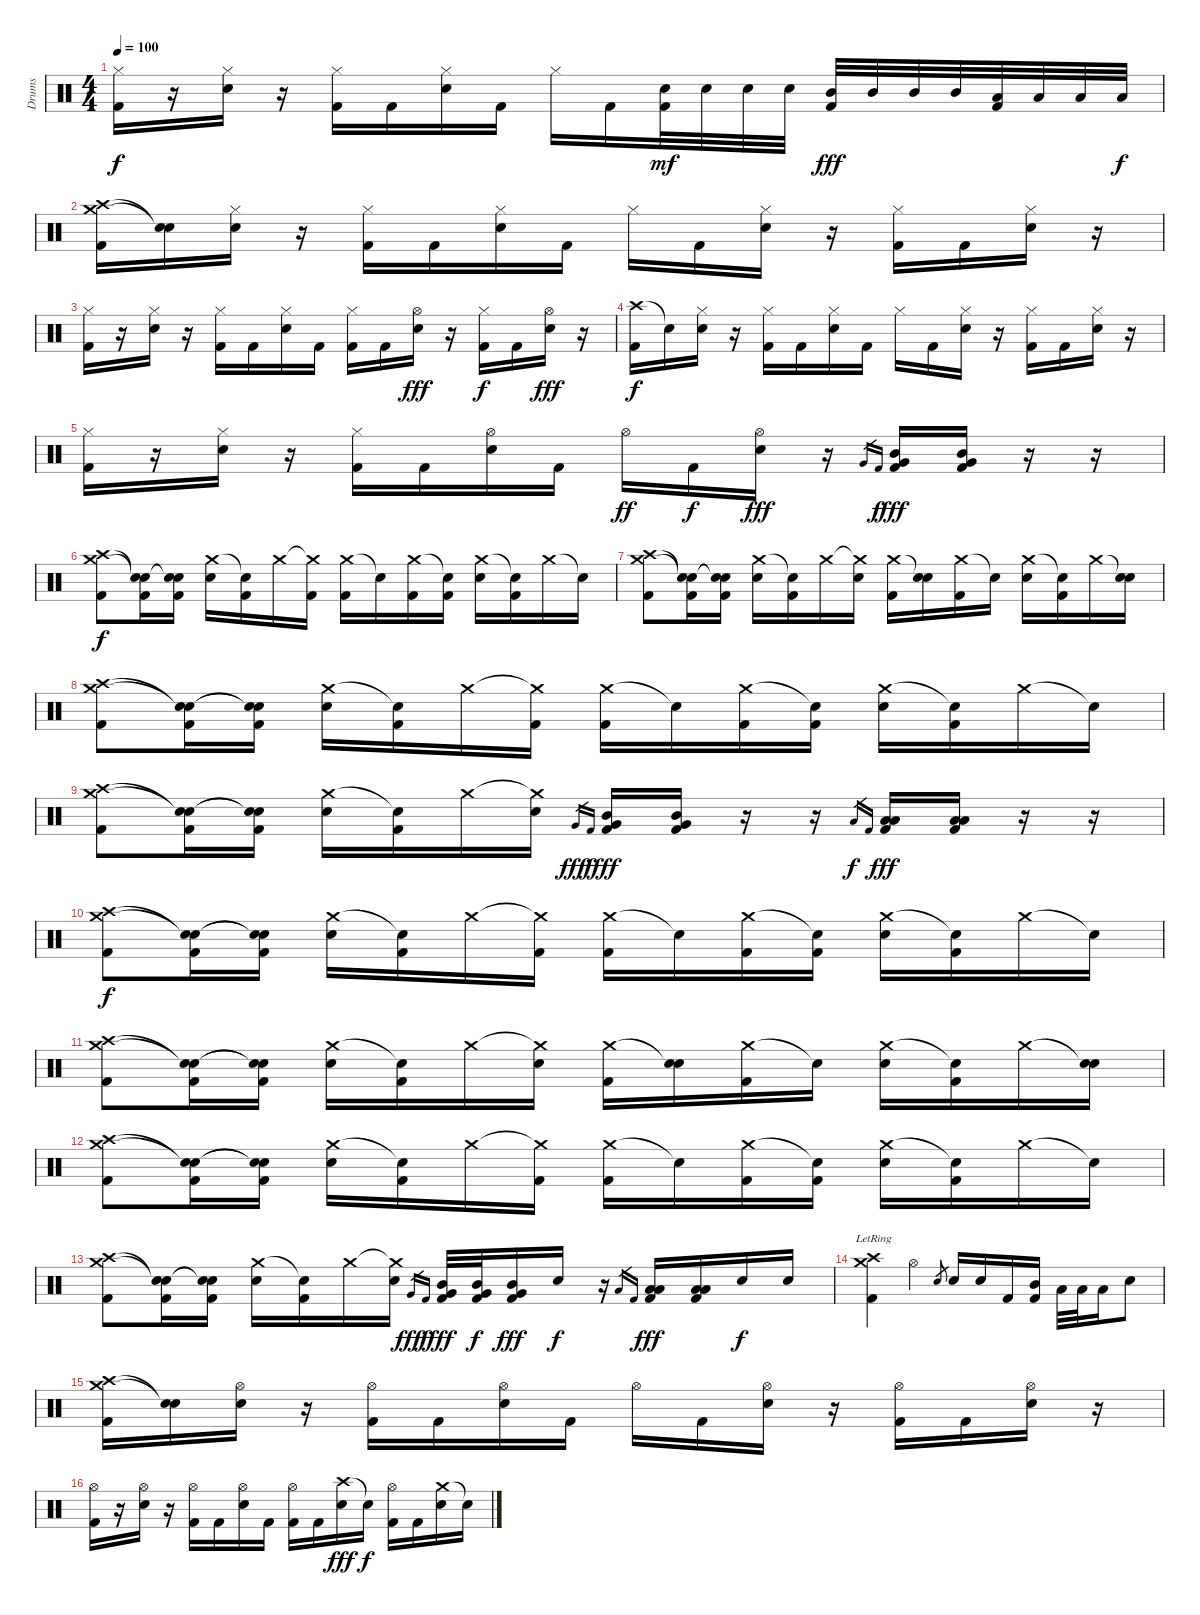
\track ("Drums" "Drums") {instrument percussion}
\staff {score}
\articulation defaults
\ts (4 4)
\tempo 100
\clef neutral
\ks c
("Hi-Hat (closed)" "Kick (hit) 2").16{dy f} r.16 ("Hi-Hat (closed)" "Electric Snare (hit)").16 r.16 ("Hi-Hat (closed)" "Kick (hit) 2").16 "Kick (hit) 2".16 ("Hi-Hat (closed)" "Electric Snare (hit)").16 "Kick (hit) 2".16 "Hi-Hat (closed)".16 "Kick (hit) 2".16 ("Kick (hit) 2" "Electric Snare (hit)").32{dy mf} "Electric Snare (hit)".32 "Electric Snare (hit)".32 "Electric Snare (hit)".32 ("Mid Tom (hit)" "Kick (hit) 2").32{dy fff} "Mid Tom (hit)".32 "Mid Tom (hit)".32 "Mid Tom (hit)".32 ("Low Tom (hit)" "Kick (hit) 2").32 "Low Tom (hit)".32 "Low Tom (hit)".32 "Low Tom (hit)".32{dy f} |
("Crash high (hit)" "Crash medium (hit)" "Kick (hit) 2").16 ("Snare (hit)"{t} "Snare (hit)"{t}).16 ("Hi-Hat (closed)" "Electric Snare (hit)").16 r.16 ("Hi-Hat (closed)" "Kick (hit) 2").16 "Kick (hit) 2".16 ("Hi-Hat (closed)" "Electric Snare (hit)").16 "Kick (hit) 2".16 "Hi-Hat (closed)".16 "Kick (hit) 2".16 ("Hi-Hat (closed)" "Electric Snare (hit)").16 r.16 ("Hi-Hat (closed)" "Kick (hit) 2").16 "Kick (hit) 2".16 ("Hi-Hat (closed)" "Electric Snare (hit)").16 r.16 |
("Hi-Hat (closed)" "Kick (hit) 2").16 r.16 ("Hi-Hat (closed)" "Electric Snare (hit)").16 r.16 ("Hi-Hat (closed)" "Kick (hit) 2").16 "Kick (hit) 2".16 ("Hi-Hat (closed)" "Electric Snare (hit)").16 "Kick (hit) 2".16 ("Hi-Hat (closed)" "Kick (hit) 2").16 "Kick (hit) 2".16 ("Hi-Hat (open)" "Electric Snare (hit)").16{dy fff} r.16 ("Hi-Hat (closed)" "Kick (hit) 2").16{dy f} "Kick (hit) 2".16 ("Hi-Hat (open)" "Electric Snare (hit)").16{dy fff} r.16 |
("Crash high (hit)" "Kick (hit) 2").16{dy f} "Snare (hit)"{t}.16 ("Hi-Hat (closed)" "Electric Snare (hit)").16 r.16 ("Hi-Hat (closed)" "Kick (hit) 2").16 "Kick (hit) 2".16 ("Hi-Hat (closed)" "Electric Snare (hit)").16 "Kick (hit) 2".16 "Hi-Hat (closed)".16 "Kick (hit) 2".16 ("Hi-Hat (closed)" "Electric Snare (hit)").16 r.16 ("Hi-Hat (closed)" "Kick (hit) 2").16 "Kick (hit) 2".16 ("Hi-Hat (closed)" "Electric Snare (hit)").16 r.16 |
("Hi-Hat (closed)" "Kick (hit) 2").16 r.16 ("Hi-Hat (closed)" "Electric Snare (hit)").16 r.16 ("Hi-Hat (closed)" "Kick (hit) 2").16 "Kick (hit) 2".16 ("Hi-Hat (open)" "Electric Snare (hit)").16 "Kick (hit) 2".16 "Hi-Hat (open)".16{dy ff} "Kick (hit) 2".16{dy f} ("Hi-Hat (open)" "Electric Snare (hit)").16{dy fff} r.16 "Very Low Tom (hit)".16{gr} "Kick (hit) 2".16{gr dy f} ("Mid Tom (hit)" "Very Low Tom (hit)" "Kick (hit) 2").16{dy fff} ("Mid Tom (hit)" "Very Low Tom (hit)" "Kick (hit) 2").16 r.16 r.16 |
("Crash high (hit)" "Crash medium (hit)" "Kick (hit) 2").8{dy f} ("Snare (hit)"{t} "Snare (hit)"{t} "Kick (hit) 2").16 ("Snare (hit)"{t} "Snare (hit)"{t} "Kick (hit) 2").16 ("Crash medium (hit)" "Electric Snare (hit)").16 ("Snare (hit)"{t} "Kick (hit) 2").16 "Crash medium (hit)".16 ("Crash medium (hit)"{t} "Kick (hit) 2").16 ("Crash medium (hit)" "Kick (hit) 2").16 "Snare (hit)"{t}.16 ("Crash medium (hit)" "Kick (hit) 2").16 ("Snare (hit)"{t} "Kick (hit) 2").16 ("Crash medium (hit)" "Electric Snare (hit)").16 ("Snare (hit)"{t} "Kick (hit) 2").16 "Crash medium (hit)".16 "Snare (hit)"{t}.16 |
("Crash high (hit)" "Crash medium (hit)" "Kick (hit) 2").8 ("Snare (hit)"{t} "Snare (hit)"{t} "Kick (hit) 2").16 ("Snare (hit)"{t} "Snare (hit)"{t} "Kick (hit) 2").16 ("Crash medium (hit)" "Electric Snare (hit)").16 ("Snare (hit)"{t} "Kick (hit) 2").16 "Crash medium (hit)".16 ("Crash medium (hit)"{t} "Electric Snare (hit)").16 ("Crash medium (hit)" "Kick (hit) 2").16 ("Snare (hit)"{t} "Electric Snare (hit)").16 ("Crash medium (hit)" "Kick (hit) 2").16 "Snare (hit)"{t}.16 ("Crash medium (hit)" "Electric Snare (hit)").16 ("Snare (hit)"{t} "Kick (hit) 2").16 "Crash medium (hit)".16 ("Snare (hit)"{t} "Electric Snare (hit)").16 |
("Crash high (hit)" "Crash medium (hit)" "Kick (hit) 2").8 ("Snare (hit)"{t} "Snare (hit)"{t} "Kick (hit) 2").16 ("Snare (hit)"{t} "Snare (hit)"{t} "Kick (hit) 2").16 ("Crash medium (hit)" "Electric Snare (hit)").16 ("Snare (hit)"{t} "Kick (hit) 2").16 "Crash medium (hit)".16 ("Crash medium (hit)"{t} "Kick (hit) 2").16 ("Crash medium (hit)" "Kick (hit) 2").16 "Snare (hit)"{t}.16 ("Crash medium (hit)" "Kick (hit) 2").16 ("Snare (hit)"{t} "Kick (hit) 2").16 ("Crash medium (hit)" "Electric Snare (hit)").16 ("Snare (hit)"{t} "Kick (hit) 2").16 "Crash medium (hit)".16 "Snare (hit)"{t}.16 |
("Crash high (hit)" "Crash medium (hit)" "Kick (hit) 2").8 ("Snare (hit)"{t} "Snare (hit)"{t} "Kick (hit) 2").16 ("Snare (hit)"{t} "Snare (hit)"{t} "Kick (hit) 2").16 ("Crash medium (hit)" "Electric Snare (hit)").16 ("Snare (hit)"{t} "Kick (hit) 2").16 "Crash medium (hit)".16 ("Crash medium (hit)"{t} "Electric Snare (hit)").16 "Very Low Tom (hit)".16{gr dy fff} "Kick (hit) 2".16{gr dy f} ("Mid Tom (hit)" "Very Low Tom (hit)" "Kick (hit) 2").16{dy fff} ("Mid Tom (hit)" "Very Low Tom (hit)" "Kick (hit) 2").16 r.16 r.16 "Low Floor Tom (hit)".16{gr dy f} "Kick (hit) 2".16{gr} ("Low Tom (hit)" "Low Floor Tom (hit)" "Kick (hit) 2").16{dy fff} ("Low Tom (hit)" "Low Floor Tom (hit)" "Kick (hit) 2").16 r.16 r.16 |
("Crash high (hit)" "Crash medium (hit)" "Kick (hit) 2").8{dy f} ("Snare (hit)"{t} "Snare (hit)"{t} "Kick (hit) 2").16 ("Snare (hit)"{t} "Snare (hit)"{t} "Kick (hit) 2").16 ("Crash medium (hit)" "Electric Snare (hit)").16 ("Snare (hit)"{t} "Kick (hit) 2").16 "Crash medium (hit)".16 ("Crash medium (hit)"{t} "Kick (hit) 2").16 ("Crash medium (hit)" "Kick (hit) 2").16 "Snare (hit)"{t}.16 ("Crash medium (hit)" "Kick (hit) 2").16 ("Snare (hit)"{t} "Kick (hit) 2").16 ("Crash medium (hit)" "Electric Snare (hit)").16 ("Snare (hit)"{t} "Kick (hit) 2").16 "Crash medium (hit)".16 "Snare (hit)"{t}.16 |
("Crash high (hit)" "Crash medium (hit)" "Kick (hit) 2").8 ("Snare (hit)"{t} "Snare (hit)"{t} "Kick (hit) 2").16 ("Snare (hit)"{t} "Snare (hit)"{t} "Kick (hit) 2").16 ("Crash medium (hit)" "Electric Snare (hit)").16 ("Snare (hit)"{t} "Kick (hit) 2").16 "Crash medium (hit)".16 ("Crash medium (hit)"{t} "Electric Snare (hit)").16 ("Crash medium (hit)" "Kick (hit) 2").16 ("Snare (hit)"{t} "Electric Snare (hit)").16 ("Crash medium (hit)" "Kick (hit) 2").16 "Snare (hit)"{t}.16 ("Crash medium (hit)" "Electric Snare (hit)").16 ("Snare (hit)"{t} "Kick (hit) 2").16 "Crash medium (hit)".16 ("Snare (hit)"{t} "Electric Snare (hit)").16 |
("Crash high (hit)" "Crash medium (hit)" "Kick (hit) 2").8 ("Snare (hit)"{t} "Snare (hit)"{t} "Kick (hit) 2").16 ("Snare (hit)"{t} "Snare (hit)"{t} "Kick (hit) 2").16 ("Crash medium (hit)" "Electric Snare (hit)").16 ("Snare (hit)"{t} "Kick (hit) 2").16 "Crash medium (hit)".16 ("Crash medium (hit)"{t} "Kick (hit) 2").16 ("Crash medium (hit)" "Kick (hit) 2").16 "Snare (hit)"{t}.16 ("Crash medium (hit)" "Kick (hit) 2").16 ("Snare (hit)"{t} "Kick (hit) 2").16 ("Crash medium (hit)" "Electric Snare (hit)").16 ("Snare (hit)"{t} "Kick (hit) 2").16 "Crash medium (hit)".16 "Snare (hit)"{t}.16 |
("Crash high (hit)" "Crash medium (hit)" "Kick (hit) 2").8 ("Snare (hit)"{t} "Snare (hit)"{t} "Kick (hit) 2").16 ("Snare (hit)"{t} "Snare (hit)"{t} "Kick (hit) 2").16 ("Crash medium (hit)" "Electric Snare (hit)").16 ("Snare (hit)"{t} "Kick (hit) 2").16 "Crash medium (hit)".16 ("Crash medium (hit)"{t} "Electric Snare (hit)").16 "Very Low Tom (hit)".16{gr dy fff} "Kick (hit) 2".16{gr dy f} ("Mid Tom (hit)" "Very Low Tom (hit)" "Kick (hit) 2").32{dy fff} ("Mid Tom (hit)" "Very Low Tom (hit)" "Kick (hit) 2").32{dy f} ("Mid Tom (hit)" "Very Low Tom (hit)" "Kick (hit) 2").16{dy fff} "Electric Snare (hit)".16{dy f} r.16 "Low Floor Tom (hit)".16{gr} "Kick (hit) 2".16{gr} ("Low Tom (hit)" "Low Floor Tom (hit)" "Kick (hit) 2").16{dy fff} ("Low Tom (hit)" "Low Floor Tom (hit)" "Kick (hit) 2").16 "Electric Snare (hit)".16{dy f} "Electric Snare (hit)".16 |
("Crash high (hit)" "Crash medium (hit)"{lr} "Kick (hit) 2").4 "Hi-Hat (open)".4 "Electric Snare (hit)".8{gr} "Electric Snare (hit)".16 "Electric Snare (hit)".16 "Kick (hit) 2".16 ("Mid Tom (hit)" "Kick (hit) 2").16 "Low Tom (hit)".32 "Low Tom (hit)".32 "Low Tom (hit)".16 "Electric Snare (hit)".8 |
("Crash high (hit)" "Crash medium (hit)" "Kick (hit) 2").16 ("Snare (hit)"{t} "Snare (hit)"{t}).16 ("Hi-Hat (open)" "Electric Snare (hit)").16 r.16 ("Hi-Hat (open)" "Kick (hit) 2").16 "Kick (hit) 2".16 ("Hi-Hat (open)" "Electric Snare (hit)").16 "Kick (hit) 2".16 "Hi-Hat (open)".16 "Kick (hit) 2".16 ("Hi-Hat (open)" "Electric Snare (hit)").16 r.16 ("Hi-Hat (open)" "Kick (hit) 2").16 "Kick (hit) 2".16 ("Hi-Hat (open)" "Electric Snare (hit)").16 r.16 |
("Hi-Hat (open)" "Kick (hit) 2").16 r.16 ("Hi-Hat (open)" "Electric Snare (hit)").16 r.16 ("Hi-Hat (open)" "Kick (hit) 2").16 "Kick (hit) 2".16 ("Hi-Hat (open)" "Electric Snare (hit)").16 "Kick (hit) 2".16 ("Hi-Hat (open)" "Kick (hit) 2").16 "Kick (hit) 2".16 ("Crash high (hit)" "Electric Snare (hit)").16{dy fff} "Snare (hit)"{t}.16{dy f} ("Hi-Hat (open)" "Kick (hit) 2").16 "Kick (hit) 2".16 ("Crash medium (hit)" "Electric Snare (hit)").16 "Snare (hit)"{t}.16
